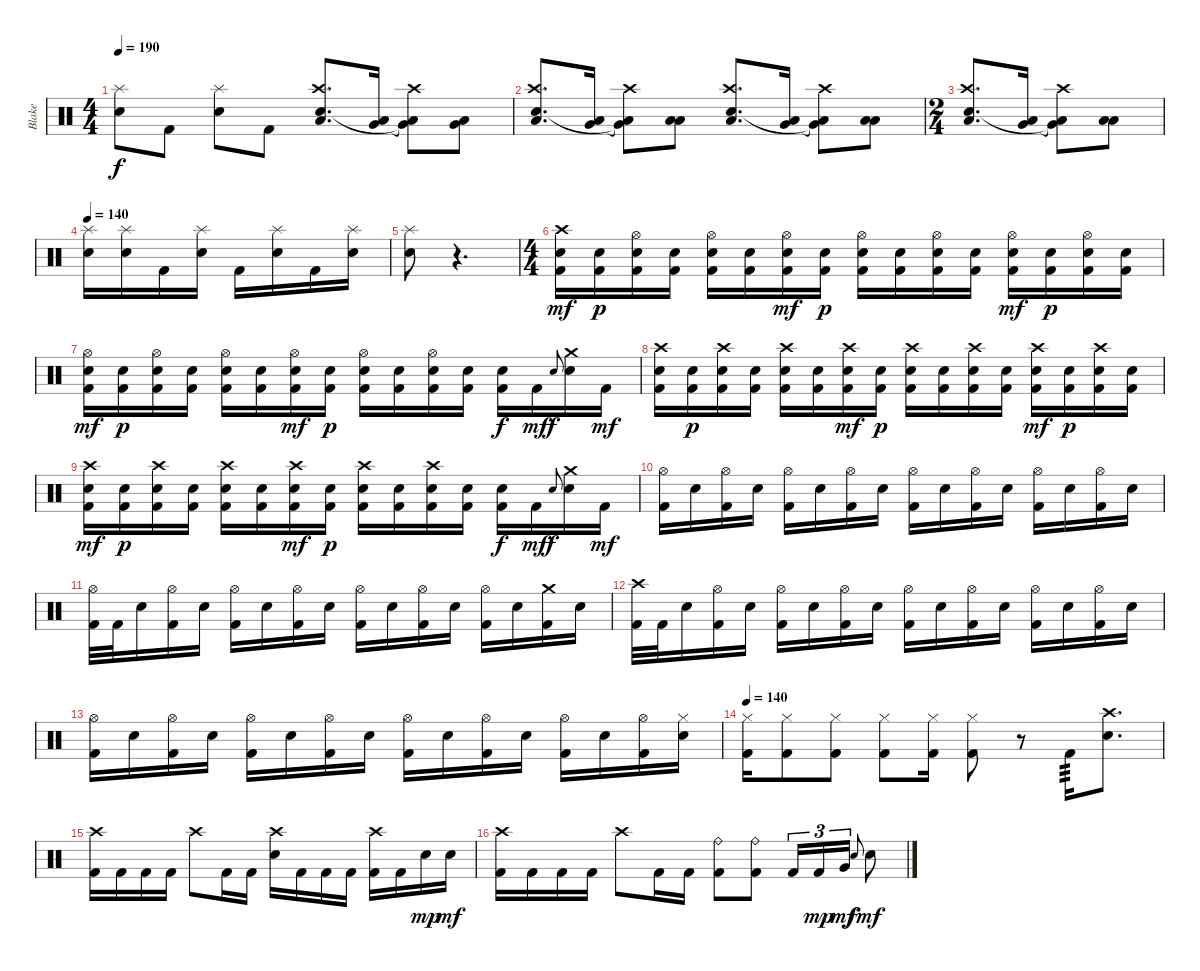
\track ("Blake" "Blake") {instrument percussion}
\staff {score}
\articulation defaults
\ts (4 4)
\tempo 190
\clef neutral
\ks c
("Splash (hit)" "Snare (hit) 2").8{dy f} "Kick (hit) 2".8 ("Splash (hit)" "Snare (hit) 2").8 "Kick (hit) 2".8 ("Crash high (hit)" "Low Tom (hit)" "Snare (hit) 2").8{d} ("Low Tom (hit)" "Very Low Tom (hit)").16 ("Crash high (hit)" "Low Tom (hit)"{t} "Very Low Tom (hit)"{t}).8 ("Very Low Tom (hit)" "Low Tom (hit)").8 |
("Crash high (hit)" "Low Tom (hit)" "Snare (hit) 2").8{d} ("Low Tom (hit)" "Very Low Tom (hit)").16 ("Crash high (hit)" "Low Tom (hit)"{t} "Very Low Tom (hit)"{t}).8 ("Low Floor Tom (hit)" "Low Tom (hit)").8 ("Crash high (hit)" "Low Tom (hit)" "Snare (hit) 2").8{d} ("Low Tom (hit)" "Very Low Tom (hit)").16 ("Crash high (hit)" "Low Tom (hit)"{t} "Very Low Tom (hit)"{t}).8 ("Low Floor Tom (hit)" "Low Tom (hit)").8 |
\ts (2 4)
("Crash high (hit)" "Low Tom (hit)" "Snare (hit) 2").8{d} ("Low Tom (hit)" "Very Low Tom (hit)").16 ("Crash high (hit)" "Low Tom (hit)"{t} "Very Low Tom (hit)"{t}).8 ("Low Floor Tom (hit)" "Low Tom (hit)").8 |
\tempo 140
("Splash (hit)" "Snare (hit) 2").16 ("Splash (hit)" "Snare (hit) 2").16 "Kick (hit) 2".16 ("Splash (hit)" "Snare (hit) 2").16 "Kick (hit) 2".16 ("Splash (hit)" "Snare (hit) 2").16 "Kick (hit) 2".16 ("Splash (hit)" "Snare (hit) 2").16 |
("Splash (hit)" "Snare (hit) 2").8 r.4{d} |
\ts (4 4)
("Crash high (hit)" "Snare (hit) 2" "Kick (hit) 2").16{dy mf} ("Snare (hit) 2" "Kick (hit) 2").16{dy p} ("Hi-Hat (open)" "Snare (hit) 2" "Kick (hit) 2").16 ("Snare (hit) 2" "Kick (hit) 2").16 ("Hi-Hat (open)" "Snare (hit) 2" "Kick (hit) 2").16 ("Snare (hit) 2" "Kick (hit) 2").16 ("Hi-Hat (open)" "Snare (hit) 2" "Kick (hit) 2").16{dy mf} ("Snare (hit) 2" "Kick (hit) 2").16{dy p} ("Hi-Hat (open)" "Snare (hit) 2" "Kick (hit) 2").16 ("Snare (hit) 2" "Kick (hit) 2").16 ("Hi-Hat (open)" "Snare (hit) 2" "Kick (hit) 2").16 ("Snare (hit) 2" "Kick (hit) 2").16 ("Hi-Hat (open)" "Snare (hit) 2" "Kick (hit) 2").16{dy mf} ("Snare (hit) 2" "Kick (hit) 2").16{dy p} ("Hi-Hat (open)" "Snare (hit) 2" "Kick (hit) 2").16 ("Snare (hit) 2" "Kick (hit) 2").16 |
("Hi-Hat (open)" "Snare (hit) 2" "Kick (hit) 2").16{dy mf} ("Snare (hit) 2" "Kick (hit) 2").16{dy p} ("Hi-Hat (open)" "Snare (hit) 2" "Kick (hit) 2").16 ("Snare (hit) 2" "Kick (hit) 2").16 ("Hi-Hat (open)" "Snare (hit) 2" "Kick (hit) 2").16 ("Snare (hit) 2" "Kick (hit) 2").16 ("Hi-Hat (open)" "Snare (hit) 2" "Kick (hit) 2").16{dy mf} ("Snare (hit) 2" "Kick (hit) 2").16{dy p} ("Hi-Hat (open)" "Snare (hit) 2" "Kick (hit) 2").16 ("Snare (hit) 2" "Kick (hit) 2").16 ("Hi-Hat (open)" "Snare (hit) 2" "Kick (hit) 2").16 ("Snare (hit) 2" "Kick (hit) 2").16 ("Snare (hit) 2" "Kick (hit) 2").16{dy f} "Kick (hit) 2".16{dy mf} "Snare (hit) 2".8{gr onbeat dy f} ("Crash medium (hit)" "Snare (hit) 2").16 "Kick (hit) 2".16{dy mf} |
("Crash high (hit)" "Snare (hit) 2" "Kick (hit) 2").16 ("Snare (hit) 2" "Kick (hit) 2").16{dy p} ("Crash high (hit)" "Snare (hit) 2" "Kick (hit) 2").16 ("Snare (hit) 2" "Kick (hit) 2").16 ("Crash high (hit)" "Snare (hit) 2" "Kick (hit) 2").16 ("Snare (hit) 2" "Kick (hit) 2").16 ("Crash high (hit)" "Snare (hit) 2" "Kick (hit) 2").16{dy mf} ("Snare (hit) 2" "Kick (hit) 2").16{dy p} ("Crash high (hit)" "Snare (hit) 2" "Kick (hit) 2").16 ("Snare (hit) 2" "Kick (hit) 2").16 ("Crash high (hit)" "Snare (hit) 2" "Kick (hit) 2").16 ("Snare (hit) 2" "Kick (hit) 2").16 ("Crash high (hit)" "Snare (hit) 2" "Kick (hit) 2").16{dy mf} ("Snare (hit) 2" "Kick (hit) 2").16{dy p} ("Crash high (hit)" "Snare (hit) 2" "Kick (hit) 2").16 ("Snare (hit) 2" "Kick (hit) 2").16 |
("Crash high (hit)" "Snare (hit) 2" "Kick (hit) 2").16{dy mf} ("Snare (hit) 2" "Kick (hit) 2").16{dy p} ("Crash high (hit)" "Snare (hit) 2" "Kick (hit) 2").16 ("Snare (hit) 2" "Kick (hit) 2").16 ("Crash high (hit)" "Snare (hit) 2" "Kick (hit) 2").16 ("Snare (hit) 2" "Kick (hit) 2").16 ("Crash high (hit)" "Snare (hit) 2" "Kick (hit) 2").16{dy mf} ("Snare (hit) 2" "Kick (hit) 2").16{dy p} ("Crash high (hit)" "Snare (hit) 2" "Kick (hit) 2").16 ("Snare (hit) 2" "Kick (hit) 2").16 ("Crash high (hit)" "Snare (hit) 2" "Kick (hit) 2").16 ("Snare (hit) 2" "Kick (hit) 2").16 ("Snare (hit) 2" "Kick (hit) 2").16{dy f} "Kick (hit) 2".16{dy mf} "Snare (hit) 2".8{gr onbeat dy f} ("Crash medium (hit)" "Snare (hit) 2").16 "Kick (hit) 2".16{dy mf} |
("Hi-Hat (open)" "Kick (hit) 2").16 "Snare (hit) 2".16 ("Hi-Hat (open)" "Kick (hit) 2").16 "Snare (hit) 2".16 ("Hi-Hat (open)" "Kick (hit) 2").16 "Snare (hit) 2".16 ("Hi-Hat (open)" "Kick (hit) 2").16 "Snare (hit) 2".16 ("Hi-Hat (open)" "Kick (hit) 2").16 "Snare (hit) 2".16 ("Hi-Hat (open)" "Kick (hit) 2").16 "Snare (hit) 2".16 ("Hi-Hat (open)" "Kick (hit) 2").16 "Snare (hit) 2".16 ("Hi-Hat (open)" "Kick (hit) 2").16 "Snare (hit) 2".16 |
("Hi-Hat (open)" "Kick (hit) 2").32 "Kick (hit) 2".32 "Snare (hit) 2".16 ("Hi-Hat (open)" "Kick (hit) 2").16 "Snare (hit) 2".16 ("Hi-Hat (open)" "Kick (hit) 2").16 "Snare (hit) 2".16 ("Hi-Hat (open)" "Kick (hit) 2").16 "Snare (hit) 2".16 ("Hi-Hat (open)" "Kick (hit) 2").16 "Snare (hit) 2".16 ("Hi-Hat (open)" "Kick (hit) 2").16 "Snare (hit) 2".16 ("Hi-Hat (open)" "Kick (hit) 2").16 "Snare (hit) 2".16 ("Crash medium (hit)" "Kick (hit) 2").16 "Snare (hit) 2".16 |
("Crash high (hit)" "Kick (hit) 2").32 "Kick (hit) 2".32 "Snare (hit) 2".16 ("Hi-Hat (open)" "Kick (hit) 2").16 "Snare (hit) 2".16 ("Hi-Hat (open)" "Kick (hit) 2").16 "Snare (hit) 2".16 ("Hi-Hat (open)" "Kick (hit) 2").16 "Snare (hit) 2".16 ("Hi-Hat (open)" "Kick (hit) 2").16 "Snare (hit) 2".16 ("Hi-Hat (open)" "Kick (hit) 2").16 "Snare (hit) 2".16 ("Hi-Hat (open)" "Kick (hit) 2").16 "Snare (hit) 2".16 ("Hi-Hat (open)" "Kick (hit) 2").16 "Snare (hit) 2".16 |
("Hi-Hat (open)" "Kick (hit) 2").16 "Snare (hit) 2".16 ("Hi-Hat (open)" "Kick (hit) 2").16 "Snare (hit) 2".16 ("Hi-Hat (open)" "Kick (hit) 2").16 "Snare (hit) 2".16 ("Hi-Hat (open)" "Kick (hit) 2").16 "Snare (hit) 2".16 ("Hi-Hat (open)" "Kick (hit) 2").16 "Snare (hit) 2".16 ("Hi-Hat (open)" "Kick (hit) 2").16 "Snare (hit) 2".16 ("Hi-Hat (open)" "Kick (hit) 2").16 "Snare (hit) 2".16 ("Hi-Hat (open)" "Kick (hit) 2").16 ("Hi-Hat (closed)" "Snare (hit) 2").16 |
\tempo 140
("Hi-Hat (closed)" "Kick (hit) 2").16 ("Hi-Hat (closed)" "Kick (hit) 2").8 ("Hi-Hat (closed)" "Kick (hit) 2").8 ("Hi-Hat (closed)" "Kick (hit) 2").8 ("Hi-Hat (closed)" "Kick (hit) 2").16 ("Hi-Hat (closed)" "Kick (hit) 2").8 r.8 "Kick (hit) 2".16{tp 3} ("Crash high (hit)" "Snare (hit) 2").8{d} |
("Crash high (hit)" "Kick (hit) 2").16 "Kick (hit) 2".16 "Kick (hit) 2".16 "Kick (hit) 2".16 "Crash high (hit)".8 "Kick (hit) 2".16 "Kick (hit) 2".16 ("Crash high (hit)" "Snare (hit) 2").16 "Kick (hit) 2".16 "Kick (hit) 2".16 "Kick (hit) 2".16 ("Crash high (hit)" "Kick (hit) 2").16 "Kick (hit) 2".16 "Snare (hit) 2".16{dy mp} "Snare (hit) 2".16{dy mf} |
("Crash high (hit)" "Kick (hit) 2").16 "Kick (hit) 2".16 "Kick (hit) 2".16 "Kick (hit) 2".16 "Crash high (hit)".8 "Kick (hit) 2".16 "Kick (hit) 2".16 ("Ride (bell)" "Kick (hit) 2").8 ("Ride (bell)" "Kick (hit) 2").8 "Kick (hit) 2".16{tu (3 2)} "Kick (hit) 2".16{tu (3 2) dy mp} "Very Low Tom (hit)".16{tu (3 2) dy mf} "Snare (hit) 2".8{gr onbeat dy f} "Snare (hit) 2".8{dy mf}
